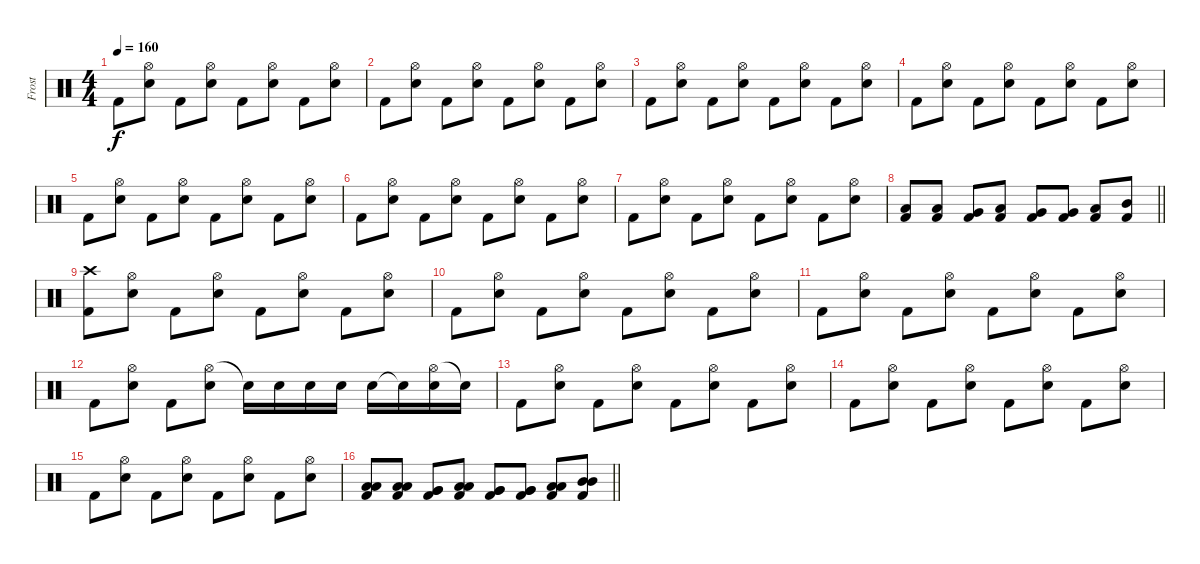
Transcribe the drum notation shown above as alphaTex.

\track ("Frost" "Frost") {instrument percussion}
\staff {score}
\articulation defaults
\ts (4 4)
\tempo 160
\clef neutral
\ks c "Kick (hit) 2".8{dy f}
("Hi-Hat (open)" "Snare (hit) 2").8 "Kick (hit) 2".8 ("Hi-Hat (open)" "Snare (hit) 2").8 "Kick (hit) 2".8 ("Hi-Hat (open)" "Snare (hit) 2").8 "Kick (hit) 2".8 ("Hi-Hat (open)" "Snare (hit) 2").8 |
"Kick (hit) 2".8 ("Hi-Hat (open)" "Snare (hit) 2").8 "Kick (hit) 2".8 ("Hi-Hat (open)" "Snare (hit) 2").8 "Kick (hit) 2".8 ("Hi-Hat (open)" "Snare (hit) 2").8 "Kick (hit) 2".8 ("Hi-Hat (open)" "Snare (hit) 2").8 |
"Kick (hit) 2".8 ("Hi-Hat (open)" "Snare (hit) 2").8 "Kick (hit) 2".8 ("Hi-Hat (open)" "Snare (hit) 2").8 "Kick (hit) 2".8 ("Hi-Hat (open)" "Snare (hit) 2").8 "Kick (hit) 2".8 ("Hi-Hat (open)" "Snare (hit) 2").8 |
"Kick (hit) 2".8 ("Hi-Hat (open)" "Snare (hit) 2").8 "Kick (hit) 2".8 ("Hi-Hat (open)" "Snare (hit) 2").8 "Kick (hit) 2".8 ("Hi-Hat (open)" "Snare (hit) 2").8 "Kick (hit) 2".8 ("Hi-Hat (open)" "Snare (hit) 2").8 |
"Kick (hit) 2".8 ("Hi-Hat (open)" "Snare (hit) 2").8 "Kick (hit) 2".8 ("Hi-Hat (open)" "Snare (hit) 2").8 "Kick (hit) 2".8 ("Hi-Hat (open)" "Snare (hit) 2").8 "Kick (hit) 2".8 ("Hi-Hat (open)" "Snare (hit) 2").8 |
"Kick (hit) 2".8 ("Hi-Hat (open)" "Snare (hit) 2").8 "Kick (hit) 2".8 ("Hi-Hat (open)" "Snare (hit) 2").8 "Kick (hit) 2".8 ("Hi-Hat (open)" "Snare (hit) 2").8 "Kick (hit) 2".8 ("Hi-Hat (open)" "Snare (hit) 2").8 |
"Kick (hit) 2".8 ("Hi-Hat (open)" "Snare (hit) 2").8 "Kick (hit) 2".8 ("Hi-Hat (open)" "Snare (hit) 2").8 "Kick (hit) 2".8 ("Hi-Hat (open)" "Snare (hit) 2").8 "Kick (hit) 2".8 ("Hi-Hat (open)" "Snare (hit) 2").8 |
\barLineRight lightlight
("Low Floor Tom (hit)" "Kick (hit) 2").8 ("Low Floor Tom (hit)" "Kick (hit) 2").8 ("Very Low Tom (hit)" "Kick (hit) 2").8 ("Low Tom (hit)" "Kick (hit) 2").8 ("Very Low Tom (hit)" "Kick (hit) 2").8 ("Very Low Tom (hit)" "Kick (hit) 2").8 ("Low Tom (hit)" "Kick (hit) 2").8 ("Mid Tom (hit)" "Kick (hit) 2").8 |
("Crash high (hit)" "Kick (hit) 2").8 ("Hi-Hat (open)" "Snare (hit) 2").8 "Kick (hit) 2".8 ("Hi-Hat (open)" "Snare (hit) 2").8 "Kick (hit) 2".8 ("Hi-Hat (open)" "Snare (hit) 2").8 "Kick (hit) 2".8 ("Hi-Hat (open)" "Snare (hit) 2").8 |
"Kick (hit) 2".8 ("Hi-Hat (open)" "Snare (hit) 2").8 "Kick (hit) 2".8 ("Hi-Hat (open)" "Snare (hit) 2").8 "Kick (hit) 2".8 ("Hi-Hat (open)" "Snare (hit) 2").8 "Kick (hit) 2".8 ("Hi-Hat (open)" "Snare (hit) 2").8 |
"Kick (hit) 2".8 ("Hi-Hat (open)" "Snare (hit) 2").8 "Kick (hit) 2".8 ("Hi-Hat (open)" "Snare (hit) 2").8 "Kick (hit) 2".8 ("Hi-Hat (open)" "Snare (hit) 2").8 "Kick (hit) 2".8 ("Hi-Hat (open)" "Snare (hit) 2").8 |
"Kick (hit) 2".8 ("Hi-Hat (open)" "Snare (hit) 2").8 "Kick (hit) 2".8 ("Hi-Hat (open)" "Snare (hit) 2").8 "Electric Snare (hit)"{t}.16 "Electric Snare (hit)".16 "Electric Snare (hit)".16 "Electric Snare (hit)".16 "Electric Snare (hit)".16 "Snare (hit) 2"{t}.16 ("Hi-Hat (open)" "Snare (hit) 2").16 "Snare (hit) 2"{t}.16 |
"Kick (hit) 2".8 ("Hi-Hat (open)" "Snare (hit) 2").8 "Kick (hit) 2".8 ("Hi-Hat (open)" "Snare (hit) 2").8 "Kick (hit) 2".8 ("Hi-Hat (open)" "Snare (hit) 2").8 "Kick (hit) 2".8 ("Hi-Hat (open)" "Snare (hit) 2").8 |
"Kick (hit) 2".8 ("Hi-Hat (open)" "Snare (hit) 2").8 "Kick (hit) 2".8 ("Hi-Hat (open)" "Snare (hit) 2").8 "Kick (hit) 2".8 ("Hi-Hat (open)" "Snare (hit) 2").8 "Kick (hit) 2".8 ("Hi-Hat (open)" "Snare (hit) 2").8 |
"Kick (hit) 2".8 ("Hi-Hat (open)" "Snare (hit) 2").8 "Kick (hit) 2".8 ("Hi-Hat (open)" "Snare (hit) 2").8 "Kick (hit) 2".8 ("Hi-Hat (open)" "Snare (hit) 2").8 "Kick (hit) 2".8 ("Hi-Hat (open)" "Snare (hit) 2").8 |
\barLineRight lightlight
("Low Floor Tom (hit)" "Low Floor Tom (hit)" "Kick (hit) 2").8 ("Low Floor Tom (hit)" "Low Floor Tom (hit)" "Kick (hit) 2").8 ("Very Low Tom (hit)" "Very Low Tom (hit)" "Kick (hit) 2").8 ("Low Tom (hit)" "Low Tom (hit)" "Kick (hit) 2").8 ("Very Low Tom (hit)" "Very Low Tom (hit)" "Kick (hit) 2").8 ("Very Low Tom (hit)" "Very Low Tom (hit)" "Kick (hit) 2").8 ("Low Tom (hit)" "Low Tom (hit)" "Kick (hit) 2").8 ("Mid Tom (hit)" "Mid Tom (hit)" "Kick (hit) 2").8
